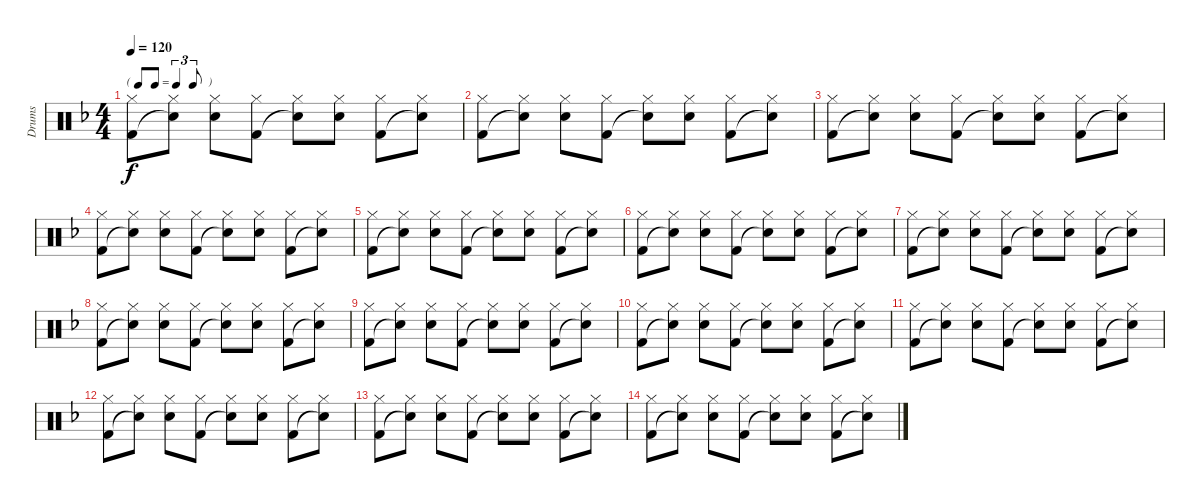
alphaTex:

\track ("Drums" "Drums") {instrument percussion}
\staff {score}
\articulation defaults
\ts (4 4)
\tf triplet8th
\tempo 120
\clef neutral
\ks f
("Hi-Hat (closed)" "Kick (hit) 2").8{dy f} ("Hi-Hat (closed)" "Snare (hit)"{t}).8 ("Hi-Hat (closed)" "Snare (hit) 2").8 ("Hi-Hat (closed)" "Kick (hit) 2").8 ("Hi-Hat (closed)" "Snare (hit)"{t}).8 ("Hi-Hat (closed)" "Snare (hit) 2").8 ("Hi-Hat (closed)" "Kick (hit) 2").8 ("Hi-Hat (closed)" "Snare (hit)"{t}).8 |
("Hi-Hat (closed)" "Kick (hit) 2").8 ("Hi-Hat (closed)" "Snare (hit)"{t}).8 ("Hi-Hat (closed)" "Snare (hit) 2").8 ("Hi-Hat (closed)" "Kick (hit) 2").8 ("Hi-Hat (closed)" "Snare (hit)"{t}).8 ("Hi-Hat (closed)" "Snare (hit) 2").8 ("Hi-Hat (closed)" "Kick (hit) 2").8 ("Hi-Hat (closed)" "Snare (hit)"{t}).8 |
("Hi-Hat (closed)" "Kick (hit) 2").8 ("Hi-Hat (closed)" "Snare (hit)"{t}).8 ("Hi-Hat (closed)" "Snare (hit) 2").8 ("Hi-Hat (closed)" "Kick (hit) 2").8 ("Hi-Hat (closed)" "Snare (hit)"{t}).8 ("Hi-Hat (closed)" "Snare (hit) 2").8 ("Hi-Hat (closed)" "Kick (hit) 2").8 ("Hi-Hat (closed)" "Snare (hit)"{t}).8 |
("Hi-Hat (closed)" "Kick (hit) 2").8 ("Hi-Hat (closed)" "Snare (hit)"{t}).8 ("Hi-Hat (closed)" "Snare (hit) 2").8 ("Hi-Hat (closed)" "Kick (hit) 2").8 ("Hi-Hat (closed)" "Snare (hit)"{t}).8 ("Hi-Hat (closed)" "Snare (hit) 2").8 ("Hi-Hat (closed)" "Kick (hit) 2").8 ("Hi-Hat (closed)" "Snare (hit)"{t}).8 |
("Hi-Hat (closed)" "Kick (hit) 2").8 ("Hi-Hat (closed)" "Snare (hit)"{t}).8 ("Hi-Hat (closed)" "Snare (hit) 2").8 ("Hi-Hat (closed)" "Kick (hit) 2").8 ("Hi-Hat (closed)" "Snare (hit)"{t}).8 ("Hi-Hat (closed)" "Snare (hit) 2").8 ("Hi-Hat (closed)" "Kick (hit) 2").8 ("Hi-Hat (closed)" "Snare (hit)"{t}).8 |
("Hi-Hat (closed)" "Kick (hit) 2").8 ("Hi-Hat (closed)" "Snare (hit)"{t}).8 ("Hi-Hat (closed)" "Snare (hit) 2").8 ("Hi-Hat (closed)" "Kick (hit) 2").8 ("Hi-Hat (closed)" "Snare (hit)"{t}).8 ("Hi-Hat (closed)" "Snare (hit) 2").8 ("Hi-Hat (closed)" "Kick (hit) 2").8 ("Hi-Hat (closed)" "Snare (hit)"{t}).8 |
("Hi-Hat (closed)" "Kick (hit) 2").8 ("Hi-Hat (closed)" "Snare (hit)"{t}).8 ("Hi-Hat (closed)" "Snare (hit) 2").8 ("Hi-Hat (closed)" "Kick (hit) 2").8 ("Hi-Hat (closed)" "Snare (hit)"{t}).8 ("Hi-Hat (closed)" "Snare (hit) 2").8 ("Hi-Hat (closed)" "Kick (hit) 2").8 ("Hi-Hat (closed)" "Snare (hit)"{t}).8 |
("Hi-Hat (closed)" "Kick (hit) 2").8 ("Hi-Hat (closed)" "Snare (hit)"{t}).8 ("Hi-Hat (closed)" "Snare (hit) 2").8 ("Hi-Hat (closed)" "Kick (hit) 2").8 ("Hi-Hat (closed)" "Snare (hit)"{t}).8 ("Hi-Hat (closed)" "Snare (hit) 2").8 ("Hi-Hat (closed)" "Kick (hit) 2").8 ("Hi-Hat (closed)" "Snare (hit)"{t}).8 |
("Hi-Hat (closed)" "Kick (hit) 2").8 ("Hi-Hat (closed)" "Snare (hit)"{t}).8 ("Hi-Hat (closed)" "Snare (hit) 2").8 ("Hi-Hat (closed)" "Kick (hit) 2").8 ("Hi-Hat (closed)" "Snare (hit)"{t}).8 ("Hi-Hat (closed)" "Snare (hit) 2").8 ("Hi-Hat (closed)" "Kick (hit) 2").8 ("Hi-Hat (closed)" "Snare (hit)"{t}).8 |
("Hi-Hat (closed)" "Kick (hit) 2").8 ("Hi-Hat (closed)" "Snare (hit)"{t}).8 ("Hi-Hat (closed)" "Snare (hit) 2").8 ("Hi-Hat (closed)" "Kick (hit) 2").8 ("Hi-Hat (closed)" "Snare (hit)"{t}).8 ("Hi-Hat (closed)" "Snare (hit) 2").8 ("Hi-Hat (closed)" "Kick (hit) 2").8 ("Hi-Hat (closed)" "Snare (hit)"{t}).8 |
("Hi-Hat (closed)" "Kick (hit) 2").8 ("Hi-Hat (closed)" "Snare (hit)"{t}).8 ("Hi-Hat (closed)" "Snare (hit) 2").8 ("Hi-Hat (closed)" "Kick (hit) 2").8 ("Hi-Hat (closed)" "Snare (hit)"{t}).8 ("Hi-Hat (closed)" "Snare (hit) 2").8 ("Hi-Hat (closed)" "Kick (hit) 2").8 ("Hi-Hat (closed)" "Snare (hit)"{t}).8 |
("Hi-Hat (closed)" "Kick (hit) 2").8{volume 0} ("Hi-Hat (closed)" "Snare (hit)"{t}).8 ("Hi-Hat (closed)" "Snare (hit) 2").8 ("Hi-Hat (closed)" "Kick (hit) 2").8 ("Hi-Hat (closed)" "Snare (hit)"{t}).8 ("Hi-Hat (closed)" "Snare (hit) 2").8 ("Hi-Hat (closed)" "Kick (hit) 2").8 ("Hi-Hat (closed)" "Snare (hit)"{t}).8 |
("Hi-Hat (closed)" "Kick (hit) 2").8 ("Hi-Hat (closed)" "Snare (hit)"{t}).8 ("Hi-Hat (closed)" "Snare (hit) 2").8 ("Hi-Hat (closed)" "Kick (hit) 2").8 ("Hi-Hat (closed)" "Snare (hit)"{t}).8 ("Hi-Hat (closed)" "Snare (hit) 2").8 ("Hi-Hat (closed)" "Kick (hit) 2").8 ("Hi-Hat (closed)" "Snare (hit)"{t}).8 |
("Hi-Hat (closed)" "Kick (hit) 2").8 ("Hi-Hat (closed)" "Snare (hit)"{t}).8 ("Hi-Hat (closed)" "Snare (hit) 2").8 ("Hi-Hat (closed)" "Kick (hit) 2").8 ("Hi-Hat (closed)" "Snare (hit)"{t}).8 ("Hi-Hat (closed)" "Snare (hit) 2").8 ("Hi-Hat (closed)" "Kick (hit) 2").8 ("Hi-Hat (closed)" "Snare (hit)"{t}).8
